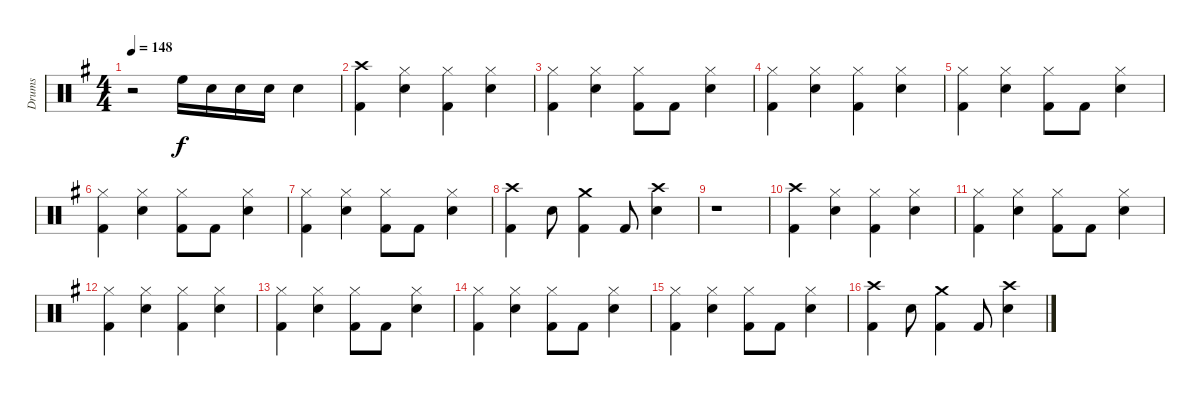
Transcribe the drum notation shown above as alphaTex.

\track ("Drums" "Drums") {instrument percussion}
\staff {score}
\articulation defaults
\ts (4 4)
\tempo 148
\clef neutral
\ks eminor
r.2{dy f} "High Floor Tom (hit)".16 "Snare (hit) 2".16 "Snare (hit) 2".16 "Snare (hit) 2".16 "Snare (hit) 2".4 |
("Kick (hit) 2" "Crash high (hit)").4 ("Snare (hit) 2" "Hi-Hat (closed)").4 ("Kick (hit) 2" "Hi-Hat (closed)").4 ("Snare (hit) 2" "Hi-Hat (closed)").4 |
("Kick (hit) 2" "Hi-Hat (closed)").4 ("Snare (hit) 2" "Hi-Hat (closed)").4 ("Kick (hit) 2" "Hi-Hat (closed)").8 "Kick (hit) 2".8 ("Snare (hit) 2" "Hi-Hat (closed)").4 |
("Kick (hit) 2" "Hi-Hat (closed)").4 ("Snare (hit) 2" "Hi-Hat (closed)").4 ("Kick (hit) 2" "Hi-Hat (closed)").4 ("Snare (hit) 2" "Hi-Hat (closed)").4 |
("Kick (hit) 2" "Hi-Hat (closed)").4 ("Snare (hit) 2" "Hi-Hat (closed)").4 ("Kick (hit) 2" "Hi-Hat (closed)").8 "Kick (hit) 2".8 ("Snare (hit) 2" "Hi-Hat (closed)").4 |
("Kick (hit) 2" "Hi-Hat (closed)").4 ("Snare (hit) 2" "Hi-Hat (closed)").4 ("Kick (hit) 2" "Hi-Hat (closed)").8 "Kick (hit) 2".8 ("Snare (hit) 2" "Hi-Hat (closed)").4 |
("Kick (hit) 2" "Hi-Hat (closed)").4 ("Snare (hit) 2" "Hi-Hat (closed)").4 ("Kick (hit) 2" "Hi-Hat (closed)").8 "Kick (hit) 2".8 ("Snare (hit) 2" "Hi-Hat (closed)").4 |
("Kick (hit) 2" "Crash high (hit)").4 "Snare (hit) 2".8 ("Kick (hit) 2" "Crash medium (hit)").4 "Kick (hit) 2".8 ("Snare (hit) 2" "Crash high (hit)").4 |
r.1 |
("Kick (hit) 2" "Crash high (hit)").4 ("Snare (hit) 2" "Hi-Hat (closed)").4 ("Kick (hit) 2" "Hi-Hat (closed)").4 ("Snare (hit) 2" "Hi-Hat (closed)").4 |
("Kick (hit) 2" "Hi-Hat (closed)").4 ("Snare (hit) 2" "Hi-Hat (closed)").4 ("Kick (hit) 2" "Hi-Hat (closed)").8 "Kick (hit) 2".8 ("Snare (hit) 2" "Hi-Hat (closed)").4 |
("Kick (hit) 2" "Hi-Hat (closed)").4 ("Snare (hit) 2" "Hi-Hat (closed)").4 ("Kick (hit) 2" "Hi-Hat (closed)").4 ("Snare (hit) 2" "Hi-Hat (closed)").4 |
("Kick (hit) 2" "Hi-Hat (closed)").4 ("Snare (hit) 2" "Hi-Hat (closed)").4 ("Kick (hit) 2" "Hi-Hat (closed)").8 "Kick (hit) 2".8 ("Snare (hit) 2" "Hi-Hat (closed)").4 |
("Kick (hit) 2" "Hi-Hat (closed)").4 ("Snare (hit) 2" "Hi-Hat (closed)").4 ("Kick (hit) 2" "Hi-Hat (closed)").8 "Kick (hit) 2".8 ("Snare (hit) 2" "Hi-Hat (closed)").4 |
("Kick (hit) 2" "Hi-Hat (closed)").4 ("Snare (hit) 2" "Hi-Hat (closed)").4 ("Kick (hit) 2" "Hi-Hat (closed)").8 "Kick (hit) 2".8 ("Snare (hit) 2" "Hi-Hat (closed)").4 |
("Kick (hit) 2" "Crash high (hit)").4 "Snare (hit) 2".8 ("Kick (hit) 2" "Crash medium (hit)").4 "Kick (hit) 2".8 ("Snare (hit) 2" "Crash high (hit)").4
